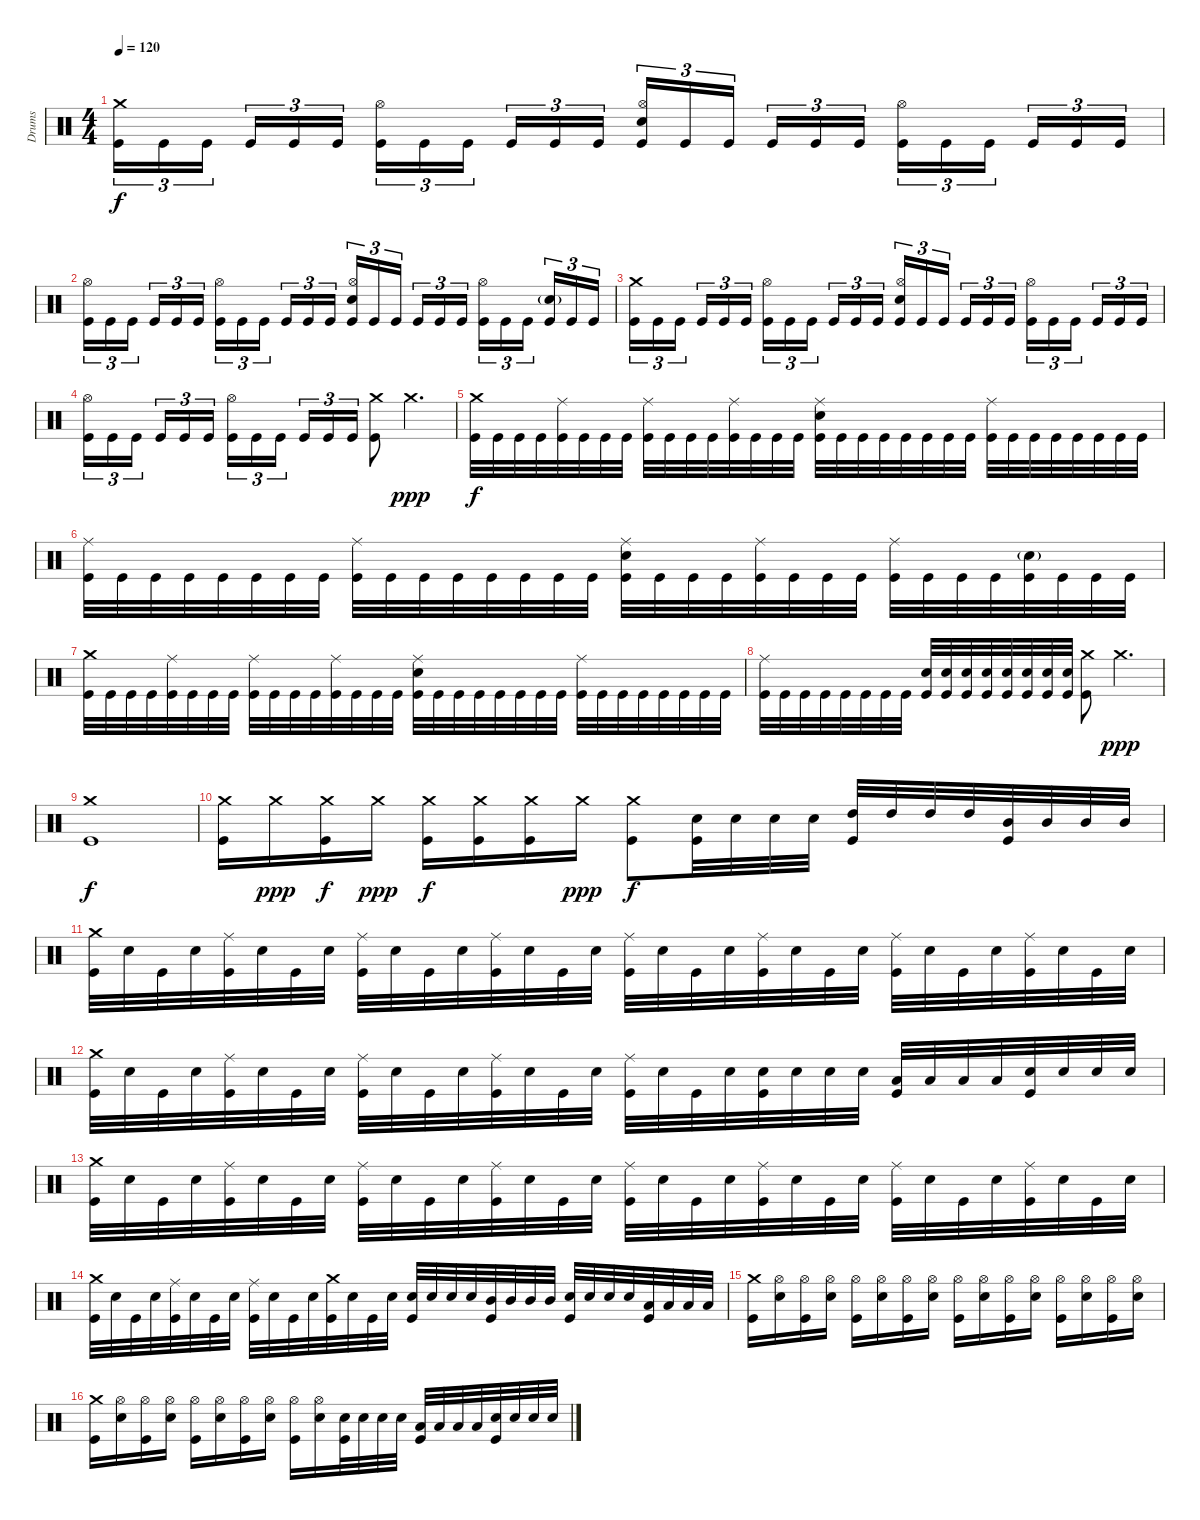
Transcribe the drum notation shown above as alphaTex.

\track ("Drums" "Drums") {instrument percussion}
\staff {score}
\articulation defaults
\ts (4 4)
\tempo 120
\clef neutral
\ks c
("Kick (hit)" "Crash medium (hit)").16{tu (3 2) dy f} "Kick (hit)".16{tu (3 2)} "Kick (hit)".16{tu (3 2) beam splitsecondary} "Kick (hit)".16{tu (3 2)} "Kick (hit)".16{tu (3 2)} "Kick (hit)".16{tu (3 2)} ("Kick (hit)" "Hi-Hat (open)").16{tu (3 2)} "Kick (hit)".16{tu (3 2)} "Kick (hit)".16{tu (3 2) beam splitsecondary} "Kick (hit)".16{tu (3 2)} "Kick (hit)".16{tu (3 2)} "Kick (hit)".16{tu (3 2)} ("Kick (hit)" "Hi-Hat (open)" "Snare (hit) 2").16{tu (3 2)} "Kick (hit)".16{tu (3 2)} "Kick (hit)".16{tu (3 2) beam splitsecondary} "Kick (hit)".16{tu (3 2)} "Kick (hit)".16{tu (3 2)} "Kick (hit)".16{tu (3 2)} ("Kick (hit)" "Hi-Hat (open)").16{tu (3 2)} "Kick (hit)".16{tu (3 2)} "Kick (hit)".16{tu (3 2) beam splitsecondary} "Kick (hit)".16{tu (3 2)} "Kick (hit)".16{tu (3 2)} "Kick (hit)".16{tu (3 2)} |
("Kick (hit)" "Hi-Hat (open)").16{tu (3 2)} "Kick (hit)".16{tu (3 2)} "Kick (hit)".16{tu (3 2) beam splitsecondary} "Kick (hit)".16{tu (3 2)} "Kick (hit)".16{tu (3 2)} "Kick (hit)".16{tu (3 2)} ("Kick (hit)" "Hi-Hat (open)").16{tu (3 2)} "Kick (hit)".16{tu (3 2)} "Kick (hit)".16{tu (3 2) beam splitsecondary} "Kick (hit)".16{tu (3 2)} "Kick (hit)".16{tu (3 2)} "Kick (hit)".16{tu (3 2)} ("Kick (hit)" "Hi-Hat (open)" "Snare (hit) 2").16{tu (3 2)} "Kick (hit)".16{tu (3 2)} "Kick (hit)".16{tu (3 2) beam splitsecondary} "Kick (hit)".16{tu (3 2)} "Kick (hit)".16{tu (3 2)} "Kick (hit)".16{tu (3 2)} ("Kick (hit)" "Hi-Hat (open)").16{tu (3 2)} "Kick (hit)".16{tu (3 2)} "Kick (hit)".16{tu (3 2) beam splitsecondary} ("Kick (hit)" "Snare (hit) 2"{g}).16{tu (3 2)} "Kick (hit)".16{tu (3 2)} "Kick (hit)".16{tu (3 2)} |
("Kick (hit)" "Crash medium (hit)").16{tu (3 2)} "Kick (hit)".16{tu (3 2)} "Kick (hit)".16{tu (3 2) beam splitsecondary} "Kick (hit)".16{tu (3 2)} "Kick (hit)".16{tu (3 2)} "Kick (hit)".16{tu (3 2)} ("Kick (hit)" "Hi-Hat (open)").16{tu (3 2)} "Kick (hit)".16{tu (3 2)} "Kick (hit)".16{tu (3 2) beam splitsecondary} "Kick (hit)".16{tu (3 2)} "Kick (hit)".16{tu (3 2)} "Kick (hit)".16{tu (3 2)} ("Kick (hit)" "Hi-Hat (open)" "Snare (hit) 2").16{tu (3 2)} "Kick (hit)".16{tu (3 2)} "Kick (hit)".16{tu (3 2) beam splitsecondary} "Kick (hit)".16{tu (3 2)} "Kick (hit)".16{tu (3 2)} "Kick (hit)".16{tu (3 2)} ("Kick (hit)" "Hi-Hat (open)").16{tu (3 2)} "Kick (hit)".16{tu (3 2)} "Kick (hit)".16{tu (3 2) beam splitsecondary} "Kick (hit)".16{tu (3 2)} "Kick (hit)".16{tu (3 2)} "Kick (hit)".16{tu (3 2)} |
("Kick (hit)" "Hi-Hat (open)").16{tu (3 2)} "Kick (hit)".16{tu (3 2)} "Kick (hit)".16{tu (3 2) beam splitsecondary} "Kick (hit)".16{tu (3 2)} "Kick (hit)".16{tu (3 2)} "Kick (hit)".16{tu (3 2)} ("Kick (hit)" "Hi-Hat (open)").16{tu (3 2)} "Kick (hit)".16{tu (3 2)} "Kick (hit)".16{tu (3 2) beam splitsecondary} "Kick (hit)".16{tu (3 2)} "Kick (hit)".16{tu (3 2)} "Kick (hit)".16{tu (3 2)} ("Kick (hit)" "Crash medium (hit)").8 "Crash medium (hit)".4{d dy ppp} |
("Kick (hit)" "Crash medium (hit)").32{dy f} "Kick (hit)".32 "Kick (hit)".32 "Kick (hit)".32 ("Kick (hit)" "Ride (middle)").32 "Kick (hit)".32 "Kick (hit)".32 "Kick (hit)".32 ("Kick (hit)" "Ride (middle)").32 "Kick (hit)".32 "Kick (hit)".32 "Kick (hit)".32 ("Kick (hit)" "Ride (middle)").32 "Kick (hit)".32 "Kick (hit)".32 "Kick (hit)".32 ("Kick (hit)" "Ride (middle)" "Snare (hit) 2").32 "Kick (hit)".32 "Kick (hit)".32 "Kick (hit)".32 "Kick (hit)".32 "Kick (hit)".32 "Kick (hit)".32 "Kick (hit)".32 ("Kick (hit)" "Ride (middle)").32 "Kick (hit)".32 "Kick (hit)".32 "Kick (hit)".32 "Kick (hit)".32 "Kick (hit)".32 "Kick (hit)".32 "Kick (hit)".32 |
("Kick (hit)" "Ride (middle)").32 "Kick (hit)".32 "Kick (hit)".32 "Kick (hit)".32 "Kick (hit)".32 "Kick (hit)".32 "Kick (hit)".32 "Kick (hit)".32 ("Kick (hit)" "Ride (middle)").32 "Kick (hit)".32 "Kick (hit)".32 "Kick (hit)".32 "Kick (hit)".32 "Kick (hit)".32 "Kick (hit)".32 "Kick (hit)".32 ("Kick (hit)" "Ride (middle)" "Snare (hit) 2").32 "Kick (hit)".32 "Kick (hit)".32 "Kick (hit)".32 ("Kick (hit)" "Ride (middle)").32 "Kick (hit)".32 "Kick (hit)".32 "Kick (hit)".32 ("Kick (hit)" "Ride (middle)").32 "Kick (hit)".32 "Kick (hit)".32 "Kick (hit)".32 ("Kick (hit)" "Snare (hit) 2"{g}).32 "Kick (hit)".32 "Kick (hit)".32 "Kick (hit)".32 |
("Kick (hit)" "Crash medium (hit)").32 "Kick (hit)".32 "Kick (hit)".32 "Kick (hit)".32 ("Kick (hit)" "Ride (middle)").32 "Kick (hit)".32 "Kick (hit)".32 "Kick (hit)".32 ("Kick (hit)" "Ride (middle)").32 "Kick (hit)".32 "Kick (hit)".32 "Kick (hit)".32 ("Kick (hit)" "Ride (middle)").32 "Kick (hit)".32 "Kick (hit)".32 "Kick (hit)".32 ("Kick (hit)" "Ride (middle)" "Snare (hit) 2").32 "Kick (hit)".32 "Kick (hit)".32 "Kick (hit)".32 "Kick (hit)".32 "Kick (hit)".32 "Kick (hit)".32 "Kick (hit)".32 ("Kick (hit)" "Ride (middle)").32 "Kick (hit)".32 "Kick (hit)".32 "Kick (hit)".32 "Kick (hit)".32 "Kick (hit)".32 "Kick (hit)".32 "Kick (hit)".32 |
("Kick (hit)" "Ride (middle)").32 "Kick (hit)".32 "Kick (hit)".32 "Kick (hit)".32 "Kick (hit)".32 "Kick (hit)".32 "Kick (hit)".32 "Kick (hit)".32 ("Kick (hit)" "Snare (hit) 2").32 ("Kick (hit)" "Snare (hit) 2").32 ("Kick (hit)" "Snare (hit) 2").32 ("Kick (hit)" "Snare (hit) 2").32 ("Kick (hit)" "Snare (hit) 2").32 ("Kick (hit)" "Snare (hit) 2").32 ("Kick (hit)" "Snare (hit) 2").32 ("Kick (hit)" "Snare (hit) 2").32 ("Kick (hit)" "Crash medium (hit)").8 "Crash medium (hit)".4{d dy ppp} |
("Kick (hit)" "Crash medium (hit)").1{dy f} |
("Kick (hit)" "Crash medium (hit)").16 "Crash medium (hit)".16{dy ppp} ("Kick (hit)" "Crash medium (hit)").16{dy f} "Crash medium (hit)".16{dy ppp} ("Kick (hit)" "Crash medium (hit)").16{dy f} ("Crash medium (hit)" "Kick (hit)").16 ("Kick (hit)" "Crash medium (hit)").16 "Crash medium (hit)".16{dy ppp} ("Kick (hit)" "Crash medium (hit)").8{dy f} ("Snare (hit) 2" "Kick (hit)").32 "Snare (hit) 2".32 "Snare (hit) 2".32 "Snare (hit) 2".32 ("High Tom (hit)" "Kick (hit)").32 "High Tom (hit)".32 "High Tom (hit)".32 "High Tom (hit)".32 ("Mid Tom (hit)" "Kick (hit)").32 "Mid Tom (hit)".32 "Mid Tom (hit)".32 "Mid Tom (hit)".32 |
("Kick (hit)" "Crash medium (hit)").32 "Snare (hit) 2".32 "Kick (hit)".32 "Snare (hit) 2".32 ("Kick (hit)" "Ride (middle)").32 "Snare (hit) 2".32 "Kick (hit)".32 "Snare (hit) 2".32 ("Kick (hit)" "Ride (middle)").32 "Snare (hit) 2".32 "Kick (hit)".32 "Snare (hit) 2".32 ("Kick (hit)" "Ride (middle)").32 "Snare (hit) 2".32 "Kick (hit)".32 "Snare (hit) 2".32 ("Kick (hit)" "Ride (middle)").32 "Snare (hit) 2".32 "Kick (hit)".32 "Snare (hit) 2".32 ("Kick (hit)" "Ride (middle)").32 "Snare (hit) 2".32 "Kick (hit)".32 "Snare (hit) 2".32 ("Kick (hit)" "Ride (middle)").32 "Snare (hit) 2".32 "Kick (hit)".32 "Snare (hit) 2".32 ("Kick (hit)" "Ride (middle)").32 "Snare (hit) 2".32 "Kick (hit)".32 "Snare (hit) 2".32 |
("Kick (hit)" "Crash medium (hit)").32 "Snare (hit) 2".32 "Kick (hit)".32 "Snare (hit) 2".32 ("Kick (hit)" "Ride (middle)").32 "Snare (hit) 2".32 "Kick (hit)".32 "Snare (hit) 2".32 ("Kick (hit)" "Ride (middle)").32 "Snare (hit) 2".32 "Kick (hit)".32 "Snare (hit) 2".32 ("Kick (hit)" "Ride (middle)").32 "Snare (hit) 2".32 "Kick (hit)".32 "Snare (hit) 2".32 ("Kick (hit)" "Ride (middle)").32 "Snare (hit) 2".32 "Kick (hit)".32 "Snare (hit) 2".32 ("Snare (hit) 2" "Kick (hit)").32 "Snare (hit) 2".32 "Snare (hit) 2".32 "Snare (hit) 2".32 ("Low Tom (hit)" "Kick (hit)").32 "Low Tom (hit)".32 "Low Tom (hit)".32 "Low Tom (hit)".32 ("Snare (hit) 2" "Kick (hit)").32 "Snare (hit) 2".32 "Snare (hit) 2".32 "Snare (hit) 2".32 |
("Kick (hit)" "Crash medium (hit)").32 "Snare (hit) 2".32 "Kick (hit)".32 "Snare (hit) 2".32 ("Kick (hit)" "Ride (middle)").32 "Snare (hit) 2".32 "Kick (hit)".32 "Snare (hit) 2".32 ("Kick (hit)" "Ride (middle)").32 "Snare (hit) 2".32 "Kick (hit)".32 "Snare (hit) 2".32 ("Kick (hit)" "Ride (middle)").32 "Snare (hit) 2".32 "Kick (hit)".32 "Snare (hit) 2".32 ("Kick (hit)" "Ride (middle)").32 "Snare (hit) 2".32 "Kick (hit)".32 "Snare (hit) 2".32 ("Kick (hit)" "Ride (middle)").32 "Snare (hit) 2".32 "Kick (hit)".32 "Snare (hit) 2".32 ("Kick (hit)" "Ride (middle)").32 "Snare (hit) 2".32 "Kick (hit)".32 "Snare (hit) 2".32 ("Kick (hit)" "Ride (middle)").32 "Snare (hit) 2".32 "Kick (hit)".32 "Snare (hit) 2".32 |
("Kick (hit)" "Crash medium (hit)").32 "Snare (hit) 2".32 "Kick (hit)".32 "Snare (hit) 2".32 ("Kick (hit)" "Ride (middle)").32 "Snare (hit) 2".32 "Kick (hit)".32 "Snare (hit) 2".32 ("Kick (hit)" "Ride (middle)").32 "Snare (hit) 2".32 "Kick (hit)".32 "Snare (hit) 2".32 ("Kick (hit)" "Crash medium (hit)").32 "Snare (hit) 2".32 "Kick (hit)".32 "Snare (hit) 2".32 ("Snare (hit) 2" "Kick (hit)").32 "Snare (hit) 2".32 "Snare (hit) 2".32 "Snare (hit) 2".32 ("Mid Tom (hit)" "Kick (hit)").32 "Mid Tom (hit)".32 "Mid Tom (hit)".32 "Mid Tom (hit)".32 ("Snare (hit) 2" "Kick (hit)").32 "Snare (hit) 2".32 "Snare (hit) 2".32 "Snare (hit) 2".32 ("Low Tom (hit)" "Kick (hit)").32 "Low Tom (hit)".32 "Low Tom (hit)".32 "Low Tom (hit)".32 |
("Kick (hit)" "Crash medium (hit)").16 ("Snare (hit) 2" "Hi-Hat (open)").16 ("Kick (hit)" "Hi-Hat (open)").16 ("Snare (hit) 2" "Hi-Hat (open)").16 ("Kick (hit)" "Hi-Hat (open)").16 ("Snare (hit) 2" "Hi-Hat (open)").16 ("Kick (hit)" "Hi-Hat (open)").16 ("Snare (hit) 2" "Hi-Hat (open)").16 ("Kick (hit)" "Hi-Hat (open)").16 ("Snare (hit) 2" "Hi-Hat (open)").16 ("Kick (hit)" "Hi-Hat (open)").16 ("Snare (hit) 2" "Hi-Hat (open)").16 ("Kick (hit)" "Hi-Hat (open)").16 ("Snare (hit) 2" "Hi-Hat (open)").16 ("Kick (hit)" "Hi-Hat (open)").16 ("Snare (hit) 2" "Hi-Hat (open)").16 |
("Kick (hit)" "Crash medium (hit)").16 ("Snare (hit) 2" "Hi-Hat (open)").16 ("Kick (hit)" "Hi-Hat (open)").16 ("Snare (hit) 2" "Hi-Hat (open)").16 ("Kick (hit)" "Hi-Hat (open)").16 ("Snare (hit) 2" "Hi-Hat (open)").16 ("Kick (hit)" "Hi-Hat (open)").16 ("Snare (hit) 2" "Hi-Hat (open)").16 ("Kick (hit)" "Hi-Hat (open)").16 ("Snare (hit) 2" "Hi-Hat (open)").16 ("Snare (hit) 2" "Kick (hit)").32 "Snare (hit) 2".32 "Snare (hit) 2".32 "Snare (hit) 2".32 ("Low Tom (hit)" "Kick (hit)").32 "Low Tom (hit)".32 "Low Tom (hit)".32 "Low Tom (hit)".32 ("Kick (hit)" "Snare (hit) 2").32 "Snare (hit) 2".32 "Snare (hit) 2".32 "Snare (hit) 2".32
